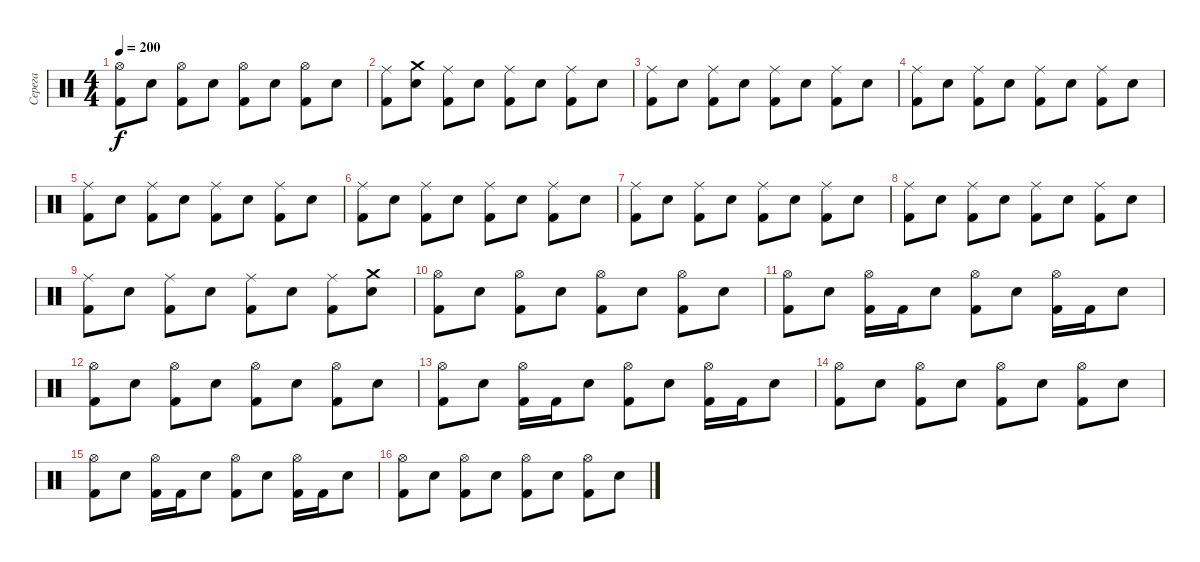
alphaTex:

\track ("Серега" "Серега") {instrument percussion}
\staff {score}
\articulation defaults
\ts (4 4)
\tempo 200
\clef neutral
\ks c
("Hi-Hat (open)" "Kick (hit) 2").8{dy f} "Electric Snare (hit)".8 ("Hi-Hat (open)" "Kick (hit) 2").8 "Electric Snare (hit)".8 ("Hi-Hat (open)" "Kick (hit) 2").8 "Electric Snare (hit)".8 ("Hi-Hat (open)" "Kick (hit) 2").8 "Electric Snare (hit)".8 |
("Ride (middle)" "Kick (hit) 2").8 ("Crash medium (hit)" "Electric Snare (hit)").8 ("Ride (middle)" "Kick (hit) 2").8 "Electric Snare (hit)".8 ("Ride (middle)" "Kick (hit) 2").8 "Electric Snare (hit)".8 ("Ride (middle)" "Kick (hit) 2").8 "Electric Snare (hit)".8 |
("Ride (middle)" "Kick (hit) 2").8 "Electric Snare (hit)".8 ("Ride (middle)" "Kick (hit) 2").8 "Electric Snare (hit)".8 ("Ride (middle)" "Kick (hit) 2").8 "Electric Snare (hit)".8 ("Ride (middle)" "Kick (hit) 2").8 "Electric Snare (hit)".8 |
("Ride (middle)" "Kick (hit) 2").8 "Electric Snare (hit)".8 ("Ride (middle)" "Kick (hit) 2").8 "Electric Snare (hit)".8 ("Ride (middle)" "Kick (hit) 2").8 "Electric Snare (hit)".8 ("Ride (middle)" "Kick (hit) 2").8 "Electric Snare (hit)".8 |
("Ride (middle)" "Kick (hit) 2").8 "Electric Snare (hit)".8 ("Ride (middle)" "Kick (hit) 2").8 "Electric Snare (hit)".8 ("Ride (middle)" "Kick (hit) 2").8 "Electric Snare (hit)".8 ("Ride (middle)" "Kick (hit) 2").8 "Electric Snare (hit)".8 |
("Ride (middle)" "Kick (hit) 2").8 "Electric Snare (hit)".8 ("Ride (middle)" "Kick (hit) 2").8 "Electric Snare (hit)".8 ("Ride (middle)" "Kick (hit) 2").8 "Electric Snare (hit)".8 ("Ride (middle)" "Kick (hit) 2").8 "Electric Snare (hit)".8 |
("Ride (middle)" "Kick (hit) 2").8 "Electric Snare (hit)".8 ("Ride (middle)" "Kick (hit) 2").8 "Electric Snare (hit)".8 ("Ride (middle)" "Kick (hit) 2").8 "Electric Snare (hit)".8 ("Ride (middle)" "Kick (hit) 2").8 "Electric Snare (hit)".8 |
("Ride (middle)" "Kick (hit) 2").8 "Electric Snare (hit)".8 ("Ride (middle)" "Kick (hit) 2").8 "Electric Snare (hit)".8 ("Ride (middle)" "Kick (hit) 2").8 "Electric Snare (hit)".8 ("Ride (middle)" "Kick (hit) 2").8 "Electric Snare (hit)".8 |
("Ride (middle)" "Kick (hit) 2").8 "Electric Snare (hit)".8 ("Ride (middle)" "Kick (hit) 2").8 "Electric Snare (hit)".8 ("Ride (middle)" "Kick (hit) 2").8 "Electric Snare (hit)".8 ("Ride (middle)" "Kick (hit) 2").8 ("Crash medium (hit)" "Electric Snare (hit)").8 |
("Hi-Hat (open)" "Kick (hit) 2").8 "Electric Snare (hit)".8 ("Hi-Hat (open)" "Kick (hit) 2").8 "Electric Snare (hit)".8 ("Hi-Hat (open)" "Kick (hit) 2").8 "Electric Snare (hit)".8 ("Hi-Hat (open)" "Kick (hit) 2").8 "Electric Snare (hit)".8 |
("Hi-Hat (open)" "Kick (hit) 2").8 "Electric Snare (hit)".8 ("Hi-Hat (open)" "Kick (hit) 2").16 "Kick (hit) 2".16 "Electric Snare (hit)".8 ("Hi-Hat (open)" "Kick (hit) 2").8 "Electric Snare (hit)".8 ("Hi-Hat (open)" "Kick (hit) 2").16 "Kick (hit) 2".16 "Electric Snare (hit)".8 |
("Hi-Hat (open)" "Kick (hit) 2").8 "Electric Snare (hit)".8 ("Hi-Hat (open)" "Kick (hit) 2").8 "Electric Snare (hit)".8 ("Hi-Hat (open)" "Kick (hit) 2").8 "Electric Snare (hit)".8 ("Hi-Hat (open)" "Kick (hit) 2").8 "Electric Snare (hit)".8 |
("Hi-Hat (open)" "Kick (hit) 2").8 "Electric Snare (hit)".8 ("Hi-Hat (open)" "Kick (hit) 2").16 "Kick (hit) 2".16 "Electric Snare (hit)".8 ("Hi-Hat (open)" "Kick (hit) 2").8 "Electric Snare (hit)".8 ("Hi-Hat (open)" "Kick (hit) 2").16 "Kick (hit) 2".16 "Electric Snare (hit)".8 |
("Hi-Hat (open)" "Kick (hit) 2").8 "Electric Snare (hit)".8 ("Hi-Hat (open)" "Kick (hit) 2").8 "Electric Snare (hit)".8 ("Hi-Hat (open)" "Kick (hit) 2").8 "Electric Snare (hit)".8 ("Hi-Hat (open)" "Kick (hit) 2").8 "Electric Snare (hit)".8 |
("Hi-Hat (open)" "Kick (hit) 2").8 "Electric Snare (hit)".8 ("Hi-Hat (open)" "Kick (hit) 2").16 "Kick (hit) 2".16 "Electric Snare (hit)".8 ("Hi-Hat (open)" "Kick (hit) 2").8 "Electric Snare (hit)".8 ("Hi-Hat (open)" "Kick (hit) 2").16 "Kick (hit) 2".16 "Electric Snare (hit)".8 |
("Hi-Hat (open)" "Kick (hit) 2").8 "Electric Snare (hit)".8 ("Hi-Hat (open)" "Kick (hit) 2").8 "Electric Snare (hit)".8 ("Hi-Hat (open)" "Kick (hit) 2").8 "Electric Snare (hit)".8 ("Hi-Hat (open)" "Kick (hit) 2").8 "Electric Snare (hit)".8
